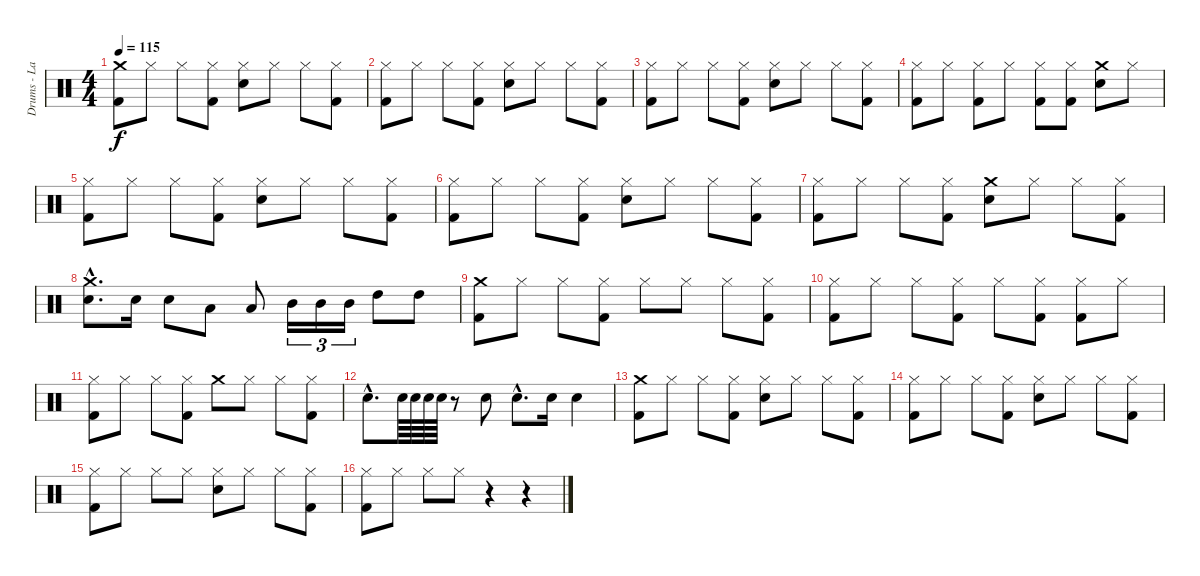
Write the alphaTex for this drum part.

\track ("Drums - Lars" "Drums - La") {instrument percussion}
\staff {score}
\articulation defaults
\ts (4 4)
\tempo 115
\clef neutral
\ks c
("Crash medium (hit)" "Kick (hit) 2").8{dy f} "Hi-Hat (closed)".8 "Hi-Hat (closed)".8 ("Kick (hit) 2" "Hi-Hat (closed)").8 ("Snare (hit) 2" "Hi-Hat (closed)").8 "Hi-Hat (closed)".8 "Hi-Hat (closed)".8 ("Kick (hit) 2" "Hi-Hat (closed)").8 |
("Kick (hit) 2" "Hi-Hat (closed)").8 "Hi-Hat (closed)".8 "Hi-Hat (closed)".8 ("Kick (hit) 2" "Hi-Hat (closed)").8 ("Snare (hit) 2" "Hi-Hat (closed)").8 "Hi-Hat (closed)".8 "Hi-Hat (closed)".8 ("Kick (hit) 2" "Hi-Hat (closed)").8 |
("Kick (hit) 2" "Hi-Hat (closed)").8 "Hi-Hat (closed)".8 "Hi-Hat (closed)".8 ("Kick (hit) 2" "Hi-Hat (closed)").8 ("Snare (hit) 2" "Hi-Hat (closed)").8 "Hi-Hat (closed)".8 "Hi-Hat (closed)".8 ("Kick (hit) 2" "Hi-Hat (closed)").8 |
("Kick (hit) 2" "Hi-Hat (closed)").8 "Hi-Hat (closed)".8 ("Kick (hit) 2" "Hi-Hat (closed)").8 "Hi-Hat (closed)".8 ("Kick (hit) 2" "Hi-Hat (closed)").8 ("Kick (hit) 2" "Hi-Hat (closed)").8 ("Snare (hit) 2" "Crash medium (hit)").8 "Hi-Hat (closed)".8 |
("Kick (hit) 2" "Hi-Hat (closed)").8 "Hi-Hat (closed)".8 "Hi-Hat (closed)".8 ("Kick (hit) 2" "Hi-Hat (closed)").8 ("Snare (hit) 2" "Hi-Hat (closed)").8 "Hi-Hat (closed)".8 "Hi-Hat (closed)".8 ("Kick (hit) 2" "Hi-Hat (closed)").8 |
("Kick (hit) 2" "Hi-Hat (closed)").8 "Hi-Hat (closed)".8 "Hi-Hat (closed)".8 ("Kick (hit) 2" "Hi-Hat (closed)").8 ("Snare (hit) 2" "Hi-Hat (closed)").8 "Hi-Hat (closed)".8 "Hi-Hat (closed)".8 ("Kick (hit) 2" "Hi-Hat (closed)").8 |
("Kick (hit) 2" "Hi-Hat (closed)").8 "Hi-Hat (closed)".8 "Hi-Hat (closed)".8 ("Kick (hit) 2" "Hi-Hat (closed)").8 ("Crash medium (hit)" "Snare (hit) 2").8 "Hi-Hat (closed)".8 "Hi-Hat (closed)".8 ("Kick (hit) 2" "Hi-Hat (closed)").8 |
("Snare (hit) 2"{hac} "Crash medium (hit)"{hac}).8{d} "Snare (hit) 2".16 "Snare (hit) 2".8 "Low Tom (hit)".8 "Low Tom (hit)".8 "Mid Tom (hit)".16{tu (3 2)} "Mid Tom (hit)".16{tu (3 2)} "Mid Tom (hit)".16{tu (3 2)} "High Tom (hit)".8 "High Tom (hit)".8 |
("Kick (hit) 2" "Crash medium (hit)").8 "Hi-Hat (closed)".8 "Hi-Hat (closed)".8 ("Kick (hit) 2" "Hi-Hat (closed)").8 "Hi-Hat (closed)".8 "Hi-Hat (closed)".8 "Hi-Hat (closed)".8 ("Kick (hit) 2" "Hi-Hat (closed)").8 |
("Kick (hit) 2" "Hi-Hat (closed)").8 "Hi-Hat (closed)".8 "Hi-Hat (closed)".8 ("Kick (hit) 2" "Hi-Hat (closed)").8 "Hi-Hat (closed)".8 ("Kick (hit) 2" "Hi-Hat (closed)").8 ("Kick (hit) 2" "Hi-Hat (closed)").8 "Hi-Hat (closed)".8 |
("Kick (hit) 2" "Hi-Hat (closed)").8 "Hi-Hat (closed)".8 "Hi-Hat (closed)".8 ("Kick (hit) 2" "Hi-Hat (closed)").8 "Crash medium (hit)".8 "Hi-Hat (closed)".8 "Hi-Hat (closed)".8 ("Kick (hit) 2" "Hi-Hat (closed)").8 |
"Snare (hit) 2"{hac}.8{d} "Snare (hit) 2".64 "Snare (hit) 2".64 "Snare (hit) 2".64 "Snare (hit) 2".64 r.8 "Snare (hit) 2".8 "Snare (hit) 2"{hac}.8{d} "Snare (hit) 2".16 "Snare (hit) 2".4 |
("Crash medium (hit)" "Kick (hit) 2").8 "Hi-Hat (closed)".8 "Hi-Hat (closed)".8 ("Kick (hit) 2" "Hi-Hat (closed)").8 ("Snare (hit) 2" "Hi-Hat (closed)").8 "Hi-Hat (closed)".8 "Hi-Hat (closed)".8 ("Kick (hit) 2" "Hi-Hat (closed)").8 |
("Hi-Hat (closed)" "Kick (hit) 2").8 "Hi-Hat (closed)".8 "Hi-Hat (closed)".8 ("Kick (hit) 2" "Hi-Hat (closed)").8 ("Snare (hit) 2" "Hi-Hat (closed)").8 "Hi-Hat (closed)".8 "Hi-Hat (closed)".8 ("Kick (hit) 2" "Hi-Hat (closed)").8 |
("Hi-Hat (closed)" "Kick (hit) 2").8 "Hi-Hat (closed)".8 "Hi-Hat (closed)".8 "Hi-Hat (closed)".8 ("Snare (hit) 2" "Hi-Hat (closed)").8 "Hi-Hat (closed)".8 "Hi-Hat (closed)".8 ("Kick (hit) 2" "Hi-Hat (closed)").8 |
("Hi-Hat (closed)" "Kick (hit) 2").8 "Hi-Hat (closed)".8 "Hi-Hat (closed)".8 "Hi-Hat (closed)".8 r.4 r.4
